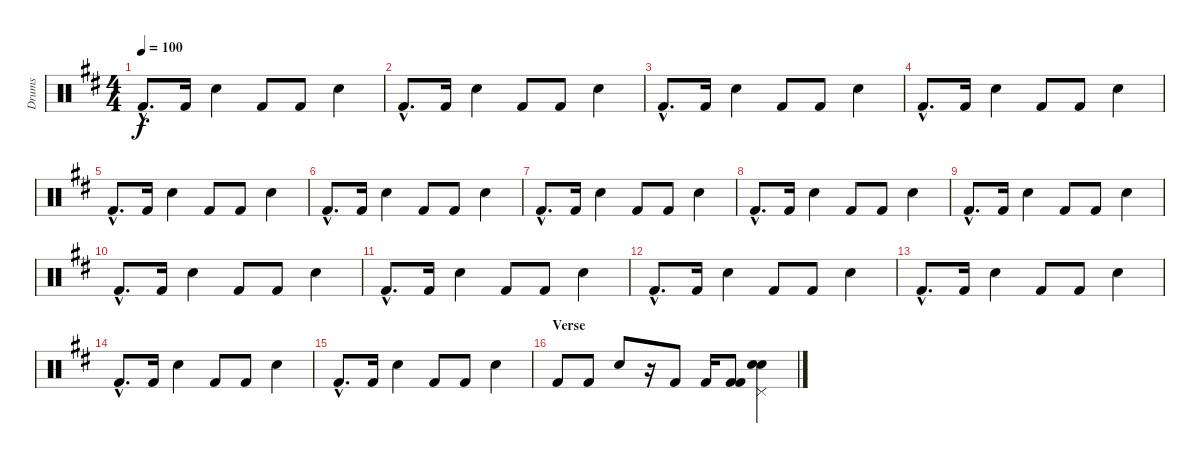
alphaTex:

\track ("Drums" "Drums") {instrument percussion}
\staff {score}
\articulation defaults
\ts (4 4)
\tempo 100
\clef neutral
\ks d "Kick (hit) 2"{hac}.8{d dy f} "Kick (hit) 2".16 "Snare (hit) 2".4 "Kick (hit) 2".8 "Kick (hit) 2".8 "Snare (hit) 2".4
|
"Kick (hit) 2"{hac}.8{d} "Kick (hit) 2".16 "Snare (hit) 2".4 "Kick (hit) 2".8 "Kick (hit) 2".8 "Snare (hit) 2".4 |
"Kick (hit) 2"{hac}.8{d} "Kick (hit) 2".16 "Snare (hit) 2".4 "Kick (hit) 2".8 "Kick (hit) 2".8 "Snare (hit) 2".4 |
"Kick (hit) 2"{hac}.8{d} "Kick (hit) 2".16 "Snare (hit) 2".4 "Kick (hit) 2".8 "Kick (hit) 2".8 "Snare (hit) 2".4 |
"Kick (hit) 2"{hac}.8{d} "Kick (hit) 2".16 "Snare (hit) 2".4 "Kick (hit) 2".8 "Kick (hit) 2".8 "Snare (hit) 2".4 |
"Kick (hit) 2"{hac}.8{d} "Kick (hit) 2".16 "Snare (hit) 2".4 "Kick (hit) 2".8 "Kick (hit) 2".8 "Snare (hit) 2".4 |
"Kick (hit) 2"{hac}.8{d} "Kick (hit) 2".16 "Snare (hit) 2".4 "Kick (hit) 2".8 "Kick (hit) 2".8 "Snare (hit) 2".4 |
"Kick (hit) 2"{hac}.8{d} "Kick (hit) 2".16 "Snare (hit) 2".4 "Kick (hit) 2".8 "Kick (hit) 2".8 "Snare (hit) 2".4 |
"Kick (hit) 2"{hac}.8{d} "Kick (hit) 2".16 "Snare (hit) 2".4 "Kick (hit) 2".8 "Kick (hit) 2".8 "Snare (hit) 2".4 |
"Kick (hit) 2"{hac}.8{d} "Kick (hit) 2".16 "Snare (hit) 2".4 "Kick (hit) 2".8 "Kick (hit) 2".8 "Snare (hit) 2".4 |
"Kick (hit) 2"{hac}.8{d} "Kick (hit) 2".16 "Snare (hit) 2".4 "Kick (hit) 2".8 "Kick (hit) 2".8 "Snare (hit) 2".4 |
"Kick (hit) 2"{hac}.8{d} "Kick (hit) 2".16 "Snare (hit) 2".4 "Kick (hit) 2".8 "Kick (hit) 2".8 "Snare (hit) 2".4 |
"Kick (hit) 2"{hac}.8{d} "Kick (hit) 2".16 "Snare (hit) 2".4 "Kick (hit) 2".8 "Kick (hit) 2".8 "Snare (hit) 2".4 |
"Kick (hit) 2"{hac}.8{d} "Kick (hit) 2".16 "Snare (hit) 2".4 "Kick (hit) 2".8 "Kick (hit) 2".8 "Snare (hit) 2".4 |
"Kick (hit) 2"{hac}.8{d} "Kick (hit) 2".16 "Snare (hit) 2".4 "Kick (hit) 2".8 "Kick (hit) 2".8 "Snare (hit) 2".4 |
\section ("" "Verse")
"Kick (hit) 2".8 "Kick (hit) 2".8 "Snare (hit) 2".8 r.16 "Kick (hit) 2".8 "Kick (hit) 2".16 ("Kick (hit) 2" "Kick (hit) 2").8 ("Snare (hit) 2" "Pedal Hi-Hat (hit)" "Electric Snare (hit)").4
